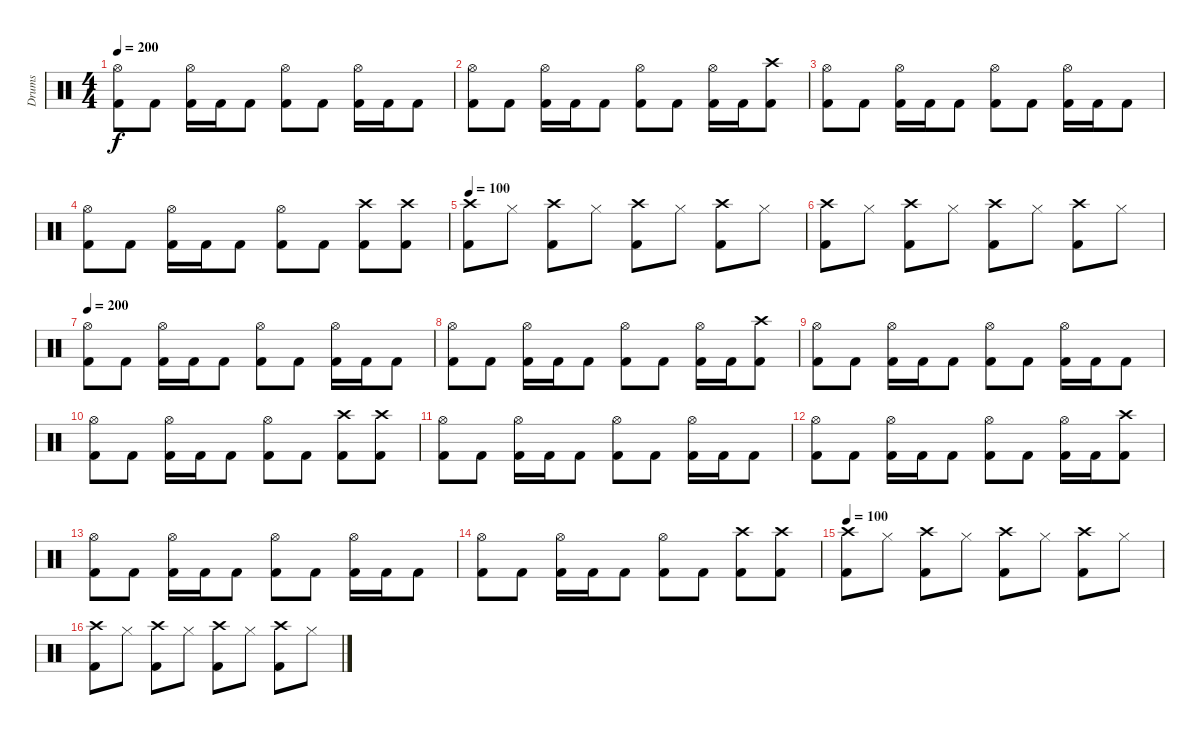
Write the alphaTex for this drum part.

\track ("Drums" "Drums") {instrument percussion}
\staff {score}
\articulation defaults
\ts (4 4)
\tempo 200
\clef neutral
\ks c
("Hi-Hat (open)" "Kick (hit) 2").8{dy f} "Kick (hit) 2".8 ("Hi-Hat (open)" "Kick (hit) 2").16 "Kick (hit) 2".16 "Kick (hit) 2".8 ("Hi-Hat (open)" "Kick (hit) 2").8 "Kick (hit) 2".8 ("Hi-Hat (open)" "Kick (hit) 2").16 "Kick (hit) 2".16 "Kick (hit) 2".8 |
("Hi-Hat (open)" "Kick (hit) 2").8 "Kick (hit) 2".8 ("Hi-Hat (open)" "Kick (hit) 2").16 "Kick (hit) 2".16 "Kick (hit) 2".8 ("Hi-Hat (open)" "Kick (hit) 2").8 "Kick (hit) 2".8 ("Hi-Hat (open)" "Kick (hit) 2").16 "Kick (hit) 2".16 ("Crash high (hit)" "Kick (hit) 2").8 |
("Hi-Hat (open)" "Kick (hit) 2").8 "Kick (hit) 2".8 ("Hi-Hat (open)" "Kick (hit) 2").16 "Kick (hit) 2".16 "Kick (hit) 2".8 ("Hi-Hat (open)" "Kick (hit) 2").8 "Kick (hit) 2".8 ("Hi-Hat (open)" "Kick (hit) 2").16 "Kick (hit) 2".16 "Kick (hit) 2".8 |
("Hi-Hat (open)" "Kick (hit) 2").8 "Kick (hit) 2".8 ("Hi-Hat (open)" "Kick (hit) 2").16 "Kick (hit) 2".16 "Kick (hit) 2".8 ("Hi-Hat (open)" "Kick (hit) 2").8 "Kick (hit) 2".8 ("Crash high (hit)" "Kick (hit) 2").8 ("Crash high (hit)" "Kick (hit) 2").8 |
\tempo 100
("Crash high (hit)" "Kick (hit) 2").8 "Hi-Hat (closed)".8 ("Crash high (hit)" "Kick (hit) 2").8 "Hi-Hat (closed)".8 ("Crash high (hit)" "Kick (hit) 2").8 "Hi-Hat (closed)".8 ("Crash high (hit)" "Kick (hit) 2").8 "Hi-Hat (closed)".8 |
("Crash high (hit)" "Kick (hit) 2").8 "Hi-Hat (closed)".8 ("Crash high (hit)" "Kick (hit) 2").8 "Hi-Hat (closed)".8 ("Crash high (hit)" "Kick (hit) 2").8 "Hi-Hat (closed)".8 ("Crash high (hit)" "Kick (hit) 2").8 "Hi-Hat (closed)".8 |
\tempo 200
("Hi-Hat (open)" "Kick (hit) 2").8 "Kick (hit) 2".8 ("Hi-Hat (open)" "Kick (hit) 2").16 "Kick (hit) 2".16 "Kick (hit) 2".8 ("Hi-Hat (open)" "Kick (hit) 2").8 "Kick (hit) 2".8 ("Hi-Hat (open)" "Kick (hit) 2").16 "Kick (hit) 2".16 "Kick (hit) 2".8 |
("Hi-Hat (open)" "Kick (hit) 2").8 "Kick (hit) 2".8 ("Hi-Hat (open)" "Kick (hit) 2").16 "Kick (hit) 2".16 "Kick (hit) 2".8 ("Hi-Hat (open)" "Kick (hit) 2").8 "Kick (hit) 2".8 ("Hi-Hat (open)" "Kick (hit) 2").16 "Kick (hit) 2".16 ("Crash high (hit)" "Kick (hit) 2").8 |
("Hi-Hat (open)" "Kick (hit) 2").8 "Kick (hit) 2".8 ("Hi-Hat (open)" "Kick (hit) 2").16 "Kick (hit) 2".16 "Kick (hit) 2".8 ("Hi-Hat (open)" "Kick (hit) 2").8 "Kick (hit) 2".8 ("Hi-Hat (open)" "Kick (hit) 2").16 "Kick (hit) 2".16 "Kick (hit) 2".8 |
("Hi-Hat (open)" "Kick (hit) 2").8 "Kick (hit) 2".8 ("Hi-Hat (open)" "Kick (hit) 2").16 "Kick (hit) 2".16 "Kick (hit) 2".8 ("Hi-Hat (open)" "Kick (hit) 2").8 "Kick (hit) 2".8 ("Crash high (hit)" "Kick (hit) 2").8 ("Crash high (hit)" "Kick (hit) 2").8 |
("Hi-Hat (open)" "Kick (hit) 2").8 "Kick (hit) 2".8 ("Hi-Hat (open)" "Kick (hit) 2").16 "Kick (hit) 2".16 "Kick (hit) 2".8 ("Hi-Hat (open)" "Kick (hit) 2").8 "Kick (hit) 2".8 ("Hi-Hat (open)" "Kick (hit) 2").16 "Kick (hit) 2".16 "Kick (hit) 2".8 |
("Hi-Hat (open)" "Kick (hit) 2").8 "Kick (hit) 2".8 ("Hi-Hat (open)" "Kick (hit) 2").16 "Kick (hit) 2".16 "Kick (hit) 2".8 ("Hi-Hat (open)" "Kick (hit) 2").8 "Kick (hit) 2".8 ("Hi-Hat (open)" "Kick (hit) 2").16 "Kick (hit) 2".16 ("Crash high (hit)" "Kick (hit) 2").8 |
("Hi-Hat (open)" "Kick (hit) 2").8 "Kick (hit) 2".8 ("Hi-Hat (open)" "Kick (hit) 2").16 "Kick (hit) 2".16 "Kick (hit) 2".8 ("Hi-Hat (open)" "Kick (hit) 2").8 "Kick (hit) 2".8 ("Hi-Hat (open)" "Kick (hit) 2").16 "Kick (hit) 2".16 "Kick (hit) 2".8 |
("Hi-Hat (open)" "Kick (hit) 2").8 "Kick (hit) 2".8 ("Hi-Hat (open)" "Kick (hit) 2").16 "Kick (hit) 2".16 "Kick (hit) 2".8 ("Hi-Hat (open)" "Kick (hit) 2").8 "Kick (hit) 2".8 ("Crash high (hit)" "Kick (hit) 2").8 ("Crash high (hit)" "Kick (hit) 2").8 |
\tempo 100
("Crash high (hit)" "Kick (hit) 2").8 "Hi-Hat (closed)".8 ("Crash high (hit)" "Kick (hit) 2").8 "Hi-Hat (closed)".8 ("Crash high (hit)" "Kick (hit) 2").8 "Hi-Hat (closed)".8 ("Crash high (hit)" "Kick (hit) 2").8 "Hi-Hat (closed)".8 |
("Crash high (hit)" "Kick (hit) 2").8 "Hi-Hat (closed)".8 ("Crash high (hit)" "Kick (hit) 2").8 "Hi-Hat (closed)".8 ("Crash high (hit)" "Kick (hit) 2").8 "Hi-Hat (closed)".8 ("Crash high (hit)" "Kick (hit) 2").8 "Hi-Hat (closed)".8
